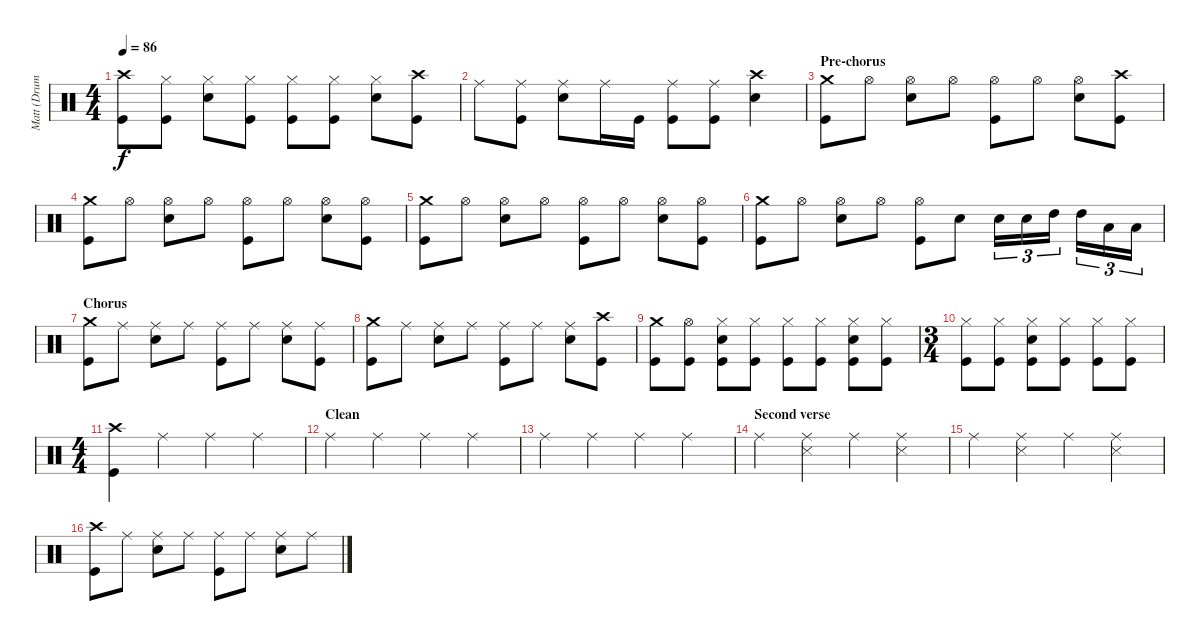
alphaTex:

\track ("Matt (Drums)" "Matt (Drum") {instrument percussion}
\staff {score}
\articulation defaults
\ts (4 4)
\tempo 86
\clef neutral
\ks c
("Crash high (hit)" "Kick (hit)").8{dy f} ("Hi-Hat (closed)" "Kick (hit)").8 ("Hi-Hat (closed)" "Electric Snare (hit)").8 ("Hi-Hat (closed)" "Kick (hit)").8 ("Hi-Hat (closed)" "Kick (hit)").8 ("Hi-Hat (closed)" "Kick (hit)").8 ("Hi-Hat (closed)" "Electric Snare (hit)").8 ("Crash high (hit)" "Kick (hit)").8 |
"Ride (middle)".8 ("Ride (middle)" "Kick (hit)").8 ("Ride (middle)" "Electric Snare (hit)").8 "Ride (middle)".16 "Kick (hit)".16 ("Ride (middle)" "Kick (hit)").8 ("Ride (middle)" "Kick (hit)").8 ("Crash high (hit)" "Electric Snare (hit)").4 |
\section ("" "Pre-chorus")
("Crash medium (hit)" "Kick (hit)").8 "Hi-Hat (open)".8 ("Hi-Hat (open)" "Electric Snare (hit)").8 "Hi-Hat (open)".8 ("Hi-Hat (open)" "Kick (hit)").8 "Hi-Hat (open)".8 ("Hi-Hat (open)" "Electric Snare (hit)").8 ("Crash high (hit)" "Kick (hit)").8 |
("Crash medium (hit)" "Kick (hit)").8 "Hi-Hat (open)".8 ("Hi-Hat (open)" "Electric Snare (hit)").8 "Hi-Hat (open)".8 ("Hi-Hat (open)" "Kick (hit)").8 "Hi-Hat (open)".8 ("Hi-Hat (open)" "Electric Snare (hit)").8 ("Hi-Hat (open)" "Kick (hit)").8 |
("Crash medium (hit)" "Kick (hit)").8 "Hi-Hat (open)".8 ("Hi-Hat (open)" "Electric Snare (hit)").8 "Hi-Hat (open)".8 ("Hi-Hat (open)" "Kick (hit)").8 "Hi-Hat (open)".8 ("Hi-Hat (open)" "Electric Snare (hit)").8 ("Hi-Hat (open)" "Kick (hit)").8 |
("Crash medium (hit)" "Kick (hit)").8 "Hi-Hat (open)".8 ("Hi-Hat (open)" "Electric Snare (hit)").8 "Hi-Hat (open)".8 ("Hi-Hat (open)" "Kick (hit)").8 "Electric Snare (hit)".8 "Electric Snare (hit)".16{tu (3 2)} "Electric Snare (hit)".16{tu (3 2)} "High Tom (hit)".16{tu (3 2)} "High Tom (hit)".16{tu (3 2)} "Low Tom (hit)".16{tu (3 2)} "Low Tom (hit)".16{tu (3 2)} |
\section ("" "Chorus")
("Crash medium (hit)" "Kick (hit)").8 "Ride (middle)".8 ("Ride (middle)" "Electric Snare (hit)").8 "Ride (middle)".8 ("Ride (middle)" "Kick (hit)").8 "Ride (middle)".8 ("Ride (middle)" "Electric Snare (hit)").8 ("Ride (middle)" "Kick (hit)").8 |
("Crash medium (hit)" "Kick (hit)").8 "Ride (middle)".8 ("Ride (middle)" "Electric Snare (hit)").8 "Ride (middle)".8 ("Ride (middle)" "Kick (hit)").8 "Ride (middle)".8 ("Ride (middle)" "Electric Snare (hit)").8 ("Crash high (hit)" "Kick (hit)").8 |
("Crash medium (hit)" "Kick (hit)").8 ("Hi-Hat (open)" "Kick (hit)").8 ("Hi-Hat (closed)" "Electric Snare (hit)" "Kick (hit)").8 ("Hi-Hat (closed)" "Kick (hit)").8 ("Hi-Hat (closed)" "Kick (hit)").8 ("Hi-Hat (closed)" "Kick (hit)").8 ("Hi-Hat (closed)" "Electric Snare (hit)" "Kick (hit)").8 ("Hi-Hat (closed)" "Kick (hit)").8 |
\ts (3 4)
("Hi-Hat (closed)" "Kick (hit)").8 ("Hi-Hat (closed)" "Kick (hit)").8 ("Hi-Hat (closed)" "Electric Snare (hit)" "Kick (hit)").8 ("Hi-Hat (closed)" "Kick (hit)").8 ("Hi-Hat (closed)" "Kick (hit)").8 ("Hi-Hat (closed)" "Kick (hit)").8 |
\ts (4 4)
("Crash high (hit)" "Kick (hit)").4 "Ride (middle)".4 "Ride (middle)".4 "Ride (middle)".4 |
\section ("" "Clean")
"Ride (middle)".4 "Ride (middle)".4 "Ride (middle)".4 "Ride (middle)".4 |
"Ride (middle)".4 "Ride (middle)".4 "Ride (middle)".4 "Ride (middle)".4 |
\section ("" "Second verse")
"Ride (middle)".4 ("Ride (middle)" "Snare (side stick) 3").4 "Ride (middle)".4 ("Ride (middle)" "Snare (side stick) 3").4 |
"Ride (middle)".4 ("Ride (middle)" "Snare (side stick) 3").4 "Ride (middle)".4 ("Ride (middle)" "Snare (side stick) 3").4 |
("Crash high (hit)" "Kick (hit)").8 "Ride (middle)".8 ("Ride (middle)" "Electric Snare (hit)").8 "Ride (middle)".8 ("Ride (middle)" "Kick (hit)").8 "Ride (middle)".8 ("Ride (middle)" "Electric Snare (hit)").8 "Ride (middle)".8
